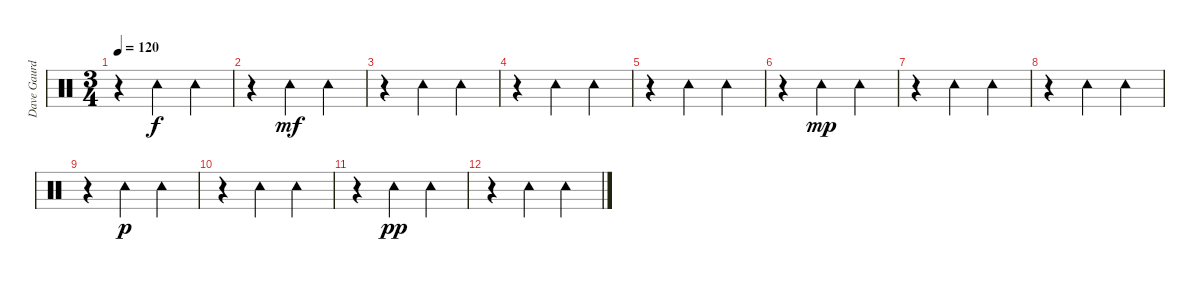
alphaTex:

\track ("Dave Gaurd" "Dave Gaurd") {instrument percussion}
\staff {score}
\articulation defaults
\ts (3 4)
\tempo 120
\clef neutral
\ks c
r.4{dy f} "Tambourine (hit)".4 "Tambourine (hit)".4 |
r.4 "Tambourine (hit)".4{dy mf} "Tambourine (hit)".4 |
r.4 "Tambourine (hit)".4 "Tambourine (hit)".4 |
r.4 "Tambourine (hit)".4 "Tambourine (hit)".4 |
r.4 "Tambourine (hit)".4 "Tambourine (hit)".4 |
r.4 "Tambourine (hit)".4{dy mp} "Tambourine (hit)".4 |
r.4 "Tambourine (hit)".4 "Tambourine (hit)".4 |
r.4 "Tambourine (hit)".4 "Tambourine (hit)".4 |
r.4 "Tambourine (hit)".4{dy p} "Tambourine (hit)".4 |
r.4 "Tambourine (hit)".4 "Tambourine (hit)".4 |
r.4 "Tambourine (hit)".4{dy pp} "Tambourine (hit)".4 |
r.4 "Tambourine (hit)".4 "Tambourine (hit)".4
